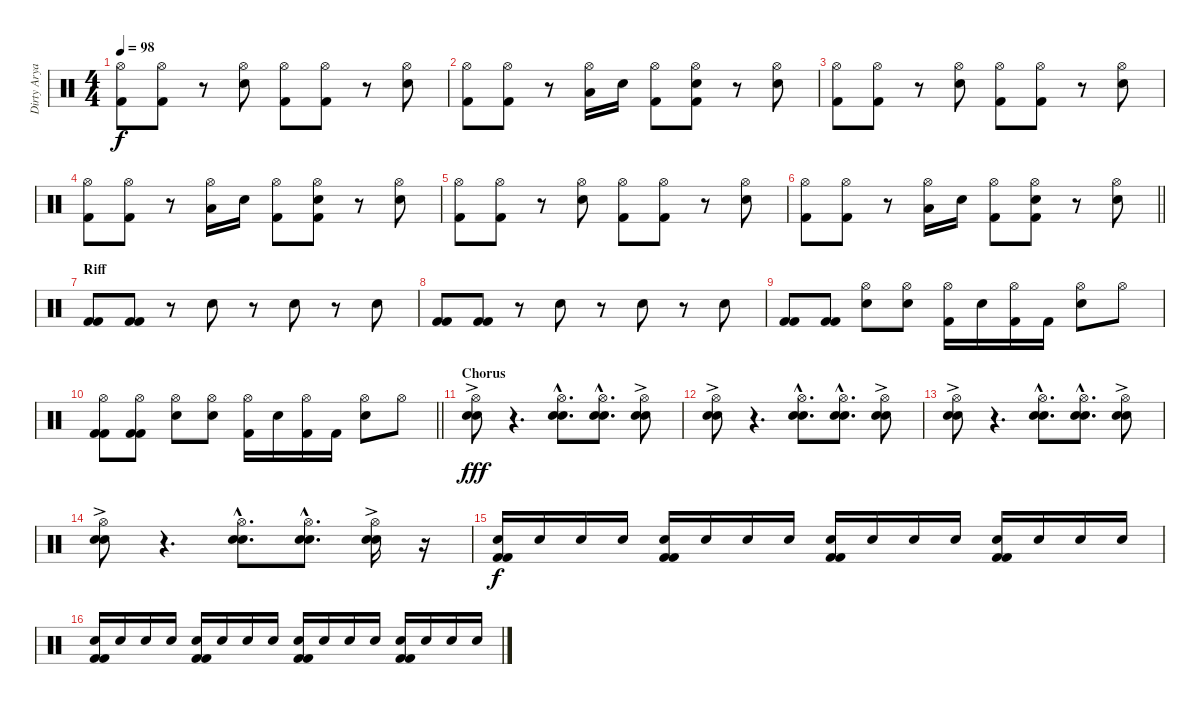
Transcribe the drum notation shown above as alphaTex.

\track ("Dirty Arya" "Dirty Arya") {instrument percussion}
\staff {score}
\articulation defaults
\ts (4 4)
\tempo 98
\clef neutral
\ks c
("Hi-Hat (open)" "Kick (hit) 2").8{dy f} ("Hi-Hat (open)" "Kick (hit) 2").8 r.8 ("Hi-Hat (open)" "Electric Snare (hit)").8 ("Hi-Hat (open)" "Kick (hit) 2").8 ("Hi-Hat (open)" "Kick (hit) 2").8 r.8 ("Hi-Hat (open)" "Electric Snare (hit)").8 |
("Hi-Hat (open)" "Kick (hit) 2").8 ("Hi-Hat (open)" "Kick (hit) 2").8 r.8 ("Hi-Hat (open)" "Low Tom (hit)").16 "Electric Snare (hit)".16 ("Hi-Hat (open)" "Kick (hit) 2").8 ("Hi-Hat (open)" "Electric Snare (hit)" "Kick (hit) 2").8 r.8 ("Hi-Hat (open)" "Electric Snare (hit)").8 |
("Hi-Hat (open)" "Kick (hit) 2").8 ("Hi-Hat (open)" "Kick (hit) 2").8 r.8 ("Hi-Hat (open)" "Electric Snare (hit)").8 ("Hi-Hat (open)" "Kick (hit) 2").8 ("Hi-Hat (open)" "Kick (hit) 2").8 r.8 ("Hi-Hat (open)" "Electric Snare (hit)").8 |
("Hi-Hat (open)" "Kick (hit) 2").8 ("Hi-Hat (open)" "Kick (hit) 2").8 r.8 ("Hi-Hat (open)" "Low Tom (hit)").16 "Electric Snare (hit)".16 ("Hi-Hat (open)" "Kick (hit) 2").8 ("Hi-Hat (open)" "Electric Snare (hit)" "Kick (hit) 2").8 r.8 ("Hi-Hat (open)" "Electric Snare (hit)").8 |
("Hi-Hat (open)" "Kick (hit) 2").8 ("Hi-Hat (open)" "Kick (hit) 2").8 r.8 ("Hi-Hat (open)" "Electric Snare (hit)").8 ("Hi-Hat (open)" "Kick (hit) 2").8 ("Hi-Hat (open)" "Kick (hit) 2").8 r.8 ("Hi-Hat (open)" "Electric Snare (hit)").8 |
\barLineRight lightlight
("Hi-Hat (open)" "Kick (hit) 2").8 ("Hi-Hat (open)" "Kick (hit) 2").8 r.8 ("Hi-Hat (open)" "Low Tom (hit)").16 "Electric Snare (hit)".16 ("Hi-Hat (open)" "Kick (hit) 2").8 ("Hi-Hat (open)" "Electric Snare (hit)" "Kick (hit) 2").8 r.8 ("Hi-Hat (open)" "Electric Snare (hit)").8 |
\section ("" "Riff")
("Kick (hit) 2" "Kick (hit) 2").8 ("Kick (hit) 2" "Kick (hit) 2").8 r.8 "Electric Snare (hit)".8 r.8 "Electric Snare (hit)".8 r.8 "Electric Snare (hit)".8 |
("Kick (hit) 2" "Kick (hit) 2").8 ("Kick (hit) 2" "Kick (hit) 2").8 r.8 "Electric Snare (hit)".8 r.8 "Electric Snare (hit)".8 r.8 "Electric Snare (hit)".8 |
("Kick (hit) 2" "Kick (hit) 2").8 ("Kick (hit) 2" "Kick (hit) 2").8 ("Hi-Hat (open)" "Electric Snare (hit)").8 ("Hi-Hat (open)" "Electric Snare (hit)").8 ("Hi-Hat (open)" "Kick (hit) 2").16 "Electric Snare (hit)".16 ("Hi-Hat (open)" "Kick (hit) 2").16 "Kick (hit) 2".16 ("Hi-Hat (open)" "Electric Snare (hit)").8 "Hi-Hat (open)".8 |
\barLineRight lightlight
("Hi-Hat (open)" "Kick (hit) 2" "Kick (hit) 2").8 ("Hi-Hat (open)" "Kick (hit) 2" "Kick (hit) 2").8 ("Hi-Hat (open)" "Electric Snare (hit)").8 ("Hi-Hat (open)" "Electric Snare (hit)").8 ("Hi-Hat (open)" "Kick (hit) 2").16 "Electric Snare (hit)".16 ("Hi-Hat (open)" "Kick (hit) 2").16 "Kick (hit) 2".16 ("Hi-Hat (open)" "Electric Snare (hit)").8 "Hi-Hat (open)".8 |
\section ("" "Chorus")
("Hi-Hat (open)" "Electric Snare (hit)"{ac} "Electric Snare (hit)"{ac}).8{dy fff} r.4{d} ("Hi-Hat (open)"{hac} "Electric Snare (hit)"{hac} "Electric Snare (hit)"{hac}).8{d} ("Hi-Hat (open)"{hac} "Electric Snare (hit)"{hac} "Electric Snare (hit)"{hac}).8{d} ("Hi-Hat (open)" "Electric Snare (hit)"{ac} "Electric Snare (hit)"{ac}).8 |
("Hi-Hat (open)" "Electric Snare (hit)"{ac} "Electric Snare (hit)"{ac}).8 r.4{d} ("Hi-Hat (open)"{hac} "Electric Snare (hit)"{hac} "Electric Snare (hit)"{hac}).8{d} ("Hi-Hat (open)"{hac} "Electric Snare (hit)"{hac} "Electric Snare (hit)"{hac}).8{d} ("Hi-Hat (open)" "Electric Snare (hit)"{ac} "Electric Snare (hit)"{ac}).8 |
("Hi-Hat (open)" "Electric Snare (hit)"{ac} "Electric Snare (hit)"{ac}).8 r.4{d} ("Hi-Hat (open)"{hac} "Electric Snare (hit)"{hac} "Electric Snare (hit)"{hac}).8{d} ("Hi-Hat (open)"{hac} "Electric Snare (hit)"{hac} "Electric Snare (hit)"{hac}).8{d} ("Hi-Hat (open)" "Electric Snare (hit)"{ac} "Electric Snare (hit)"{ac}).8 |
("Hi-Hat (open)" "Electric Snare (hit)" "Electric Snare (hit)"{ac}).8 r.4{d} ("Hi-Hat (open)"{hac} "Electric Snare (hit)"{hac} "Electric Snare (hit)"{hac}).8{d} ("Hi-Hat (open)"{hac} "Electric Snare (hit)"{hac} "Electric Snare (hit)"{hac}).8{d} ("Hi-Hat (open)" "Electric Snare (hit)" "Electric Snare (hit)"{ac}).16 r.16{volume 7} |
("Electric Snare (hit)" "Kick (hit) 2" "Kick (hit) 2").16{dy f volume 16} "Electric Snare (hit)".16 "Electric Snare (hit)".16 "Electric Snare (hit)".16 ("Electric Snare (hit)" "Kick (hit) 2" "Kick (hit) 2").16 "Electric Snare (hit)".16 "Electric Snare (hit)".16 "Electric Snare (hit)".16 ("Electric Snare (hit)" "Kick (hit) 2" "Kick (hit) 2").16 "Electric Snare (hit)".16 "Electric Snare (hit)".16 "Electric Snare (hit)".16 ("Electric Snare (hit)" "Kick (hit) 2" "Kick (hit) 2").16 "Electric Snare (hit)".16 "Electric Snare (hit)".16 "Electric Snare (hit)".16 |
("Electric Snare (hit)" "Kick (hit) 2" "Kick (hit) 2").16 "Electric Snare (hit)".16 "Electric Snare (hit)".16 "Electric Snare (hit)".16 ("Electric Snare (hit)" "Kick (hit) 2" "Kick (hit) 2").16 "Electric Snare (hit)".16 "Electric Snare (hit)".16 "Electric Snare (hit)".16 ("Electric Snare (hit)" "Kick (hit) 2" "Kick (hit) 2").16 "Electric Snare (hit)".16 "Electric Snare (hit)".16 "Electric Snare (hit)".16 ("Electric Snare (hit)" "Kick (hit) 2" "Kick (hit) 2").16 "Electric Snare (hit)".16 "Electric Snare (hit)".16 "Electric Snare (hit)".16
